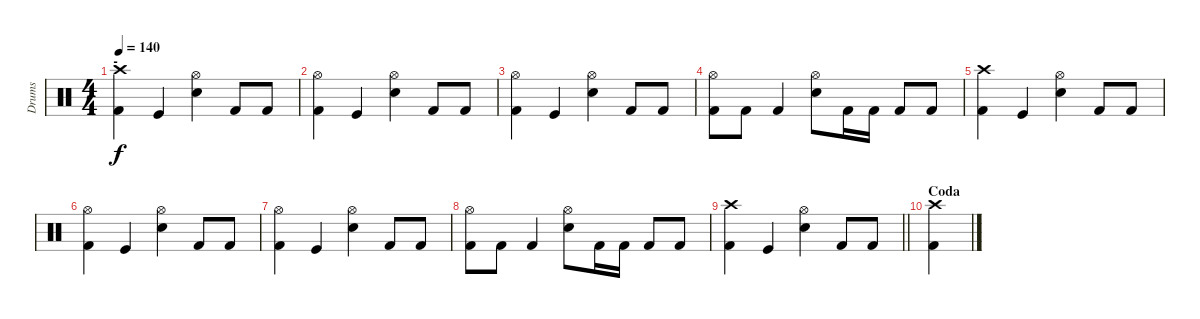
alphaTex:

\track ("Drums " "Drums ") {instrument percussion}
\staff {score}
\articulation defaults
\ts (4 4)
\section ("" "-")
\tempo 140
\clef neutral
\ks c
("Crash high (hit)" "Kick (hit) 2").4{dy f} "Kick (hit)".4 ("Hi-Hat (open)" "Electric Snare (hit)").4 "Kick (hit) 2".8 "Kick (hit) 2".8 |
("Hi-Hat (open)" "Kick (hit) 2").4 "Kick (hit)".4 ("Hi-Hat (open)" "Electric Snare (hit)").4 "Kick (hit) 2".8 "Kick (hit) 2".8 |
("Hi-Hat (open)" "Kick (hit) 2").4 "Kick (hit)".4 ("Hi-Hat (open)" "Electric Snare (hit)").4 "Kick (hit) 2".8 "Kick (hit) 2".8 |
("Hi-Hat (open)" "Kick (hit) 2").8 "Kick (hit) 2".8 "Kick (hit) 2".4 ("Hi-Hat (open)" "Electric Snare (hit)").8 "Kick (hit) 2".16 "Kick (hit) 2".16 "Kick (hit) 2".8 "Kick (hit) 2".8 |
("Crash high (hit)" "Kick (hit) 2").4 "Kick (hit)".4 ("Hi-Hat (open)" "Electric Snare (hit)").4 "Kick (hit) 2".8 "Kick (hit) 2".8 |
("Hi-Hat (open)" "Kick (hit) 2").4 "Kick (hit)".4 ("Hi-Hat (open)" "Electric Snare (hit)").4 "Kick (hit) 2".8 "Kick (hit) 2".8 |
("Hi-Hat (open)" "Kick (hit) 2").4 "Kick (hit)".4 ("Hi-Hat (open)" "Electric Snare (hit)").4 "Kick (hit) 2".8 "Kick (hit) 2".8 |
("Hi-Hat (open)" "Kick (hit) 2").8 "Kick (hit) 2".8 "Kick (hit) 2".4 ("Hi-Hat (open)" "Electric Snare (hit)").8 "Kick (hit) 2".16 "Kick (hit) 2".16 "Kick (hit) 2".8 "Kick (hit) 2".8 |
\barLineRight lightlight
("Crash high (hit)" "Kick (hit) 2").4 "Kick (hit)".4 ("Hi-Hat (open)" "Electric Snare (hit)").4 "Kick (hit) 2".8 "Kick (hit) 2".8 |
\section ("" "Coda")
("Crash high (hit)" "Kick (hit) 2").4
